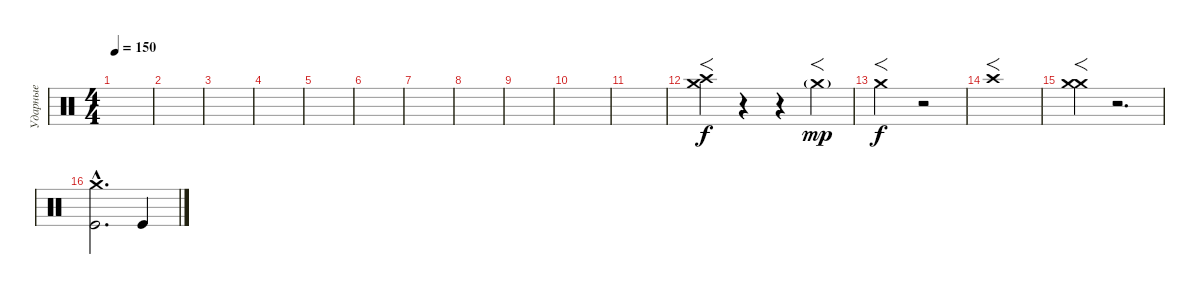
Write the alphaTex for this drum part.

\track ("Ударные" "Ударные") {instrument percussion}
\staff {score}
\articulation defaults
\ts (4 4)
\tempo 150
\clef neutral
\ks c
|
|
|
|
|
|
|
|
|
|
|
("Crash high (hit)" "Crash medium (hit)").4{f} r.4 r.4 "Crash medium (hit)"{g}.4{f dy mp} |
"Crash medium (hit)".2{f dy f} r.2 |
"Crash high (hit)".1{f} |
("Crash medium (hit)" "Crash medium (hit)").4{f} r.2{d} |
("Crash medium (hit)"{hac} "Kick (hit)"{hac}).2{d} "Kick (hit)".4
